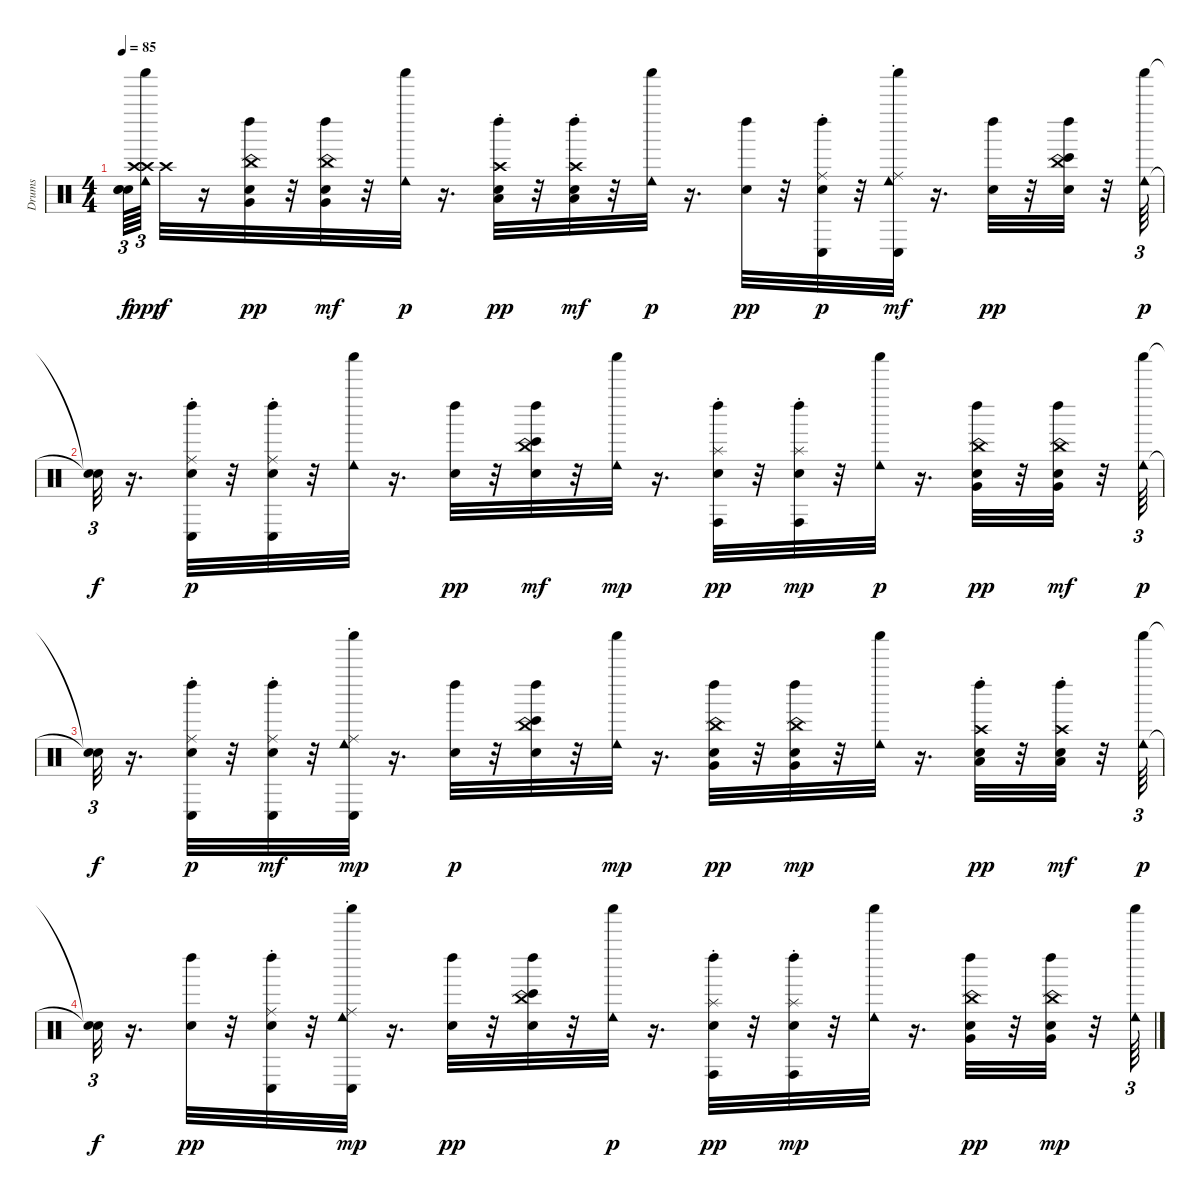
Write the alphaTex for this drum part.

\track ("Drums" "Drums") {instrument percussion}
\staff {score}
\articulation defaults
\ts (4 4)
\tempo 85
\clef neutral
\ks c
("Snare (hit)"{t} "Snare (hit)"{t} "Snare (hit)"{t}).64{tu (3 2) dy f} ("Shaker (hit)" "Cowbell low (hit)" "Crash high (hit)" "Crash high (hit)").64{tu (3 2) dy ppp} "Crash high (hit)".32{dy f} r.16 ("China (choke)" "Very Low Tom (hit)" "Snare (hit)" "Left Maraca (hit)").32{dy pp} r.32 ("Snare (hit)" "Left Maraca (hit)" "Very Low Tom (hit)" "China (choke)").32{dy mf} r.32 ("Cowbell low (hit)" "Shaker (hit)").32{dy p} r.16{d} ("Crash high (choke)" "Low Floor Tom (hit)" "Left Maraca (hit)" "Snare (hit)").32{dy pp} r.32 ("Left Maraca (hit)" "Snare (hit)" "Crash high (choke)" "Low Floor Tom (hit)").32{dy mf} r.32 ("Shaker (hit)" "Cowbell low (hit)").32{dy p} r.16{d} ("Left Maraca (hit)" "Snare (hit)").32{dy pp} r.32 ("Ride (choke)" "Conga low (hit)" "Snare (hit)" "Left Maraca (hit)").32{dy p} r.32 ("Shaker (hit)" "Conga low (hit)" "Cowbell low (hit)" "Ride (choke)").32{dy mf} r.16{d} ("Left Maraca (hit)" "Snare (hit)").32{dy pp} r.32 ("Bongo High (hit)" "Left Maraca (hit)" "China (choke)" "Snare (hit)").32 r.32 ("Shaker (hit)" "Cowbell low (hit)").64{tu (3 2) dy p} |
("Snare (hit)"{t} "Snare (hit)"{t}).32{tu (3 2) dy f} r.16{d} ("Conga low (hit)" "Ride (choke)" "Snare (hit)" "Left Maraca (hit)").32{dy p} r.32 ("Conga low (hit)" "Ride (choke)" "Snare (hit)" "Left Maraca (hit)").32 r.32 ("Shaker (hit)" "Cowbell low (hit)").32 r.16{d} ("Left Maraca (hit)" "Snare (hit)").32{dy pp} r.32 ("Snare (hit)" "Left Maraca (hit)" "China (choke)" "Bongo High (hit)").32{dy mf} r.32 ("Cowbell low (hit)" "Shaker (hit)").32{dy mp} r.16{d} ("Conga high (hit)" "Splash (choke)" "Left Maraca (hit)" "Snare (hit)").32{dy pp} r.32 ("Left Maraca (hit)" "Snare (hit)" "Splash (choke)" "Conga high (hit)").32{dy mp} r.32 ("Shaker (hit)" "Cowbell low (hit)").32{dy p} r.16{d} ("China (choke)" "Very Low Tom (hit)" "Left Maraca (hit)" "Snare (hit)").32{dy pp} r.32 ("Left Maraca (hit)" "Snare (hit)" "Very Low Tom (hit)" "China (choke)").32{dy mf} r.32 ("Shaker (hit)" "Cowbell low (hit)").64{tu (3 2) dy p} |
("Snare (hit)"{t} "Snare (hit)"{t}).32{tu (3 2) dy f} r.16{d} ("Ride (choke)" "Conga low (hit)" "Snare (hit)" "Left Maraca (hit)").32{dy p} r.32 ("Left Maraca (hit)" "Snare (hit)" "Ride (choke)" "Conga low (hit)").32{dy mf} r.32 ("Shaker (hit)" "Conga low (hit)" "Cowbell low (hit)" "Ride (choke)").32{dy mp} r.16{d} ("Left Maraca (hit)" "Snare (hit)").32{dy p} r.32 ("China (choke)" "Bongo High (hit)" "Snare (hit)" "Left Maraca (hit)").32 r.32 ("Cowbell low (hit)" "Shaker (hit)").32{dy mp} r.16{d} ("China (choke)" "Very Low Tom (hit)" "Left Maraca (hit)" "Snare (hit)").32{dy pp} r.32 ("Left Maraca (hit)" "China (choke)" "Snare (hit)" "Very Low Tom (hit)").32{dy mp} r.32 ("Cowbell low (hit)" "Shaker (hit)").32 r.16{d} ("Crash high (choke)" "Low Floor Tom (hit)" "Left Maraca (hit)" "Snare (hit)").32{dy pp} r.32 ("Left Maraca (hit)" "Snare (hit)" "Low Floor Tom (hit)" "Crash high (choke)").32{dy mf} r.32 ("Shaker (hit)" "Cowbell low (hit)").64{tu (3 2) dy p} |
("Snare (hit)"{t} "Snare (hit)"{t}).32{tu (3 2) dy f} r.16{d} ("Left Maraca (hit)" "Snare (hit)").32{dy pp} r.32 ("Conga low (hit)" "Ride (choke)" "Left Maraca (hit)" "Snare (hit)").32 r.32 ("Shaker (hit)" "Conga low (hit)" "Cowbell low (hit)" "Ride (choke)").32{dy mp} r.16{d} ("Left Maraca (hit)" "Snare (hit)").32{dy pp} r.32 ("Bongo High (hit)" "China (choke)" "Left Maraca (hit)" "Snare (hit)").32 r.32 ("Shaker (hit)" "Cowbell low (hit)").32{dy p} r.16{d} ("Conga high (hit)" "Splash (choke)" "Left Maraca (hit)" "Snare (hit)").32{dy pp} r.32 ("Left Maraca (hit)" "Snare (hit)" "Conga high (hit)" "Splash (choke)").32{dy mp} r.32 ("Cowbell low (hit)" "Shaker (hit)").32 r.16{d} ("China (choke)" "Very Low Tom (hit)" "Left Maraca (hit)" "Snare (hit)").32{dy pp} r.32 ("Left Maraca (hit)" "China (choke)" "Snare (hit)" "Very Low Tom (hit)").32{dy mp} r.32 ("Cowbell low (hit)" "Shaker (hit)").64{tu (3 2)}
